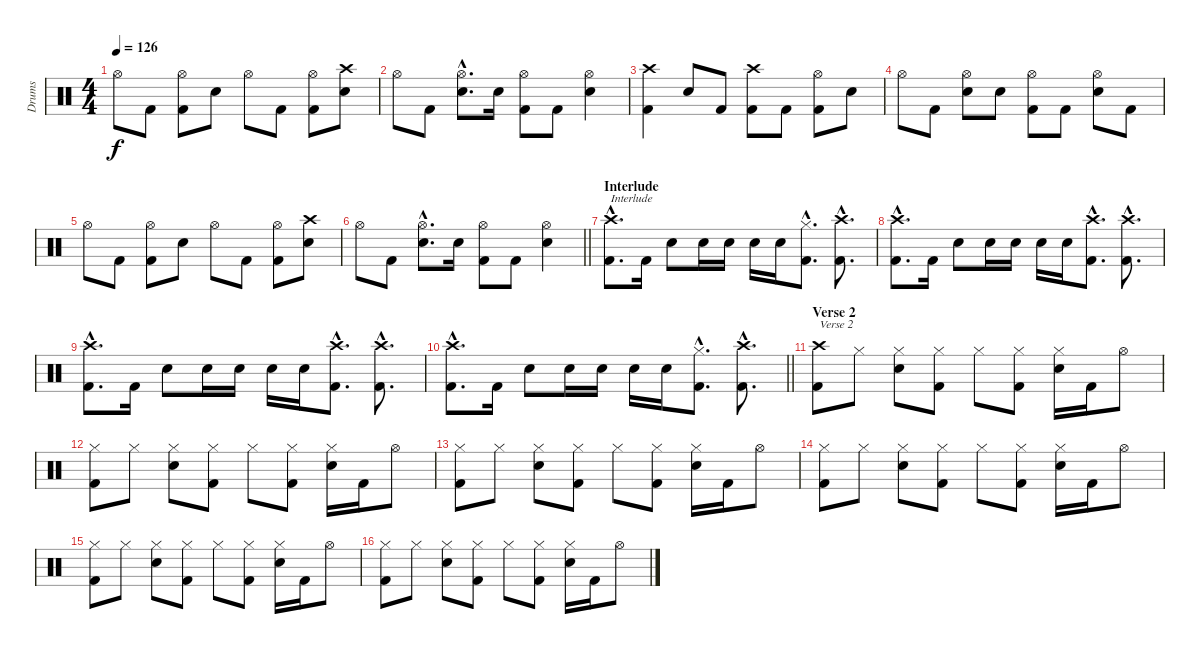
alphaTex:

\track ("Drums" "Drums") {instrument percussion}
\staff {score}
\articulation defaults
\ts (4 4)
\tempo 126
\clef neutral
\ks c "Hi-Hat (open)".8{dy f} "Kick (hit) 2".8
("Hi-Hat (open)" "Kick (hit) 2").8 "Electric Snare (hit)".8 "Hi-Hat (open)".8 "Kick (hit) 2".8 ("Hi-Hat (open)" "Kick (hit) 2").8 ("Crash high (hit)" "Electric Snare (hit)").8 |
"Hi-Hat (open)".8 "Kick (hit) 2".8 ("Hi-Hat (open)"{hac} "Electric Snare (hit)"{hac}).8{d} "Electric Snare (hit)".16 ("Hi-Hat (open)" "Kick (hit) 2").8 "Kick (hit) 2".8 ("Hi-Hat (open)" "Electric Snare (hit)").4 |
("Crash high (hit)" "Kick (hit) 2").4 "Electric Snare (hit)".8 "Kick (hit) 2".8 ("Crash high (hit)" "Kick (hit) 2").8 "Kick (hit) 2".8 ("Hi-Hat (open)" "Kick (hit) 2").8 "Electric Snare (hit)".8 |
"Hi-Hat (open)".8 "Kick (hit) 2".8 ("Hi-Hat (open)" "Electric Snare (hit)").8 "Electric Snare (hit)".8 ("Hi-Hat (open)" "Kick (hit) 2").8 "Kick (hit) 2".8 ("Hi-Hat (open)" "Electric Snare (hit)").8 "Kick (hit) 2".8 |
"Hi-Hat (open)".8 "Kick (hit) 2".8 ("Hi-Hat (open)" "Kick (hit) 2").8 "Electric Snare (hit)".8 "Hi-Hat (open)".8 "Kick (hit) 2".8 ("Hi-Hat (open)" "Kick (hit) 2").8 ("Crash high (hit)" "Electric Snare (hit)").8 |
\barLineRight lightlight "Hi-Hat (open)".8 "Kick (hit) 2".8
("Hi-Hat (open)"{hac} "Electric Snare (hit)"{hac}).8{d} "Electric Snare (hit)".16 ("Hi-Hat (open)" "Kick (hit) 2").8 "Kick (hit) 2".8 ("Hi-Hat (open)" "Electric Snare (hit)").4 |
\section ("" "Interlude")
("Crash high (hit)"{hac} "Kick (hit) 2"{hac}).8{d txt "Interlude"} "Kick (hit) 2".16 "Electric Snare (hit)".8 "Electric Snare (hit)".16 "Electric Snare (hit)".16 "Electric Snare (hit)".16 "Electric Snare (hit)".16 ("Hi-Hat (closed)"{hac} "Kick (hit) 2"{hac}).8{d} ("Crash high (hit)"{hac} "Kick (hit) 2"{hac}).8{d} |
("Crash high (hit)"{hac} "Kick (hit) 2"{hac}).8{d} "Kick (hit) 2".16 "Electric Snare (hit)".8 "Electric Snare (hit)".16 "Electric Snare (hit)".16 "Electric Snare (hit)".16 "Electric Snare (hit)".16 ("Crash high (hit)"{hac} "Kick (hit) 2"{hac}).8{d} ("Crash high (hit)"{hac} "Kick (hit) 2"{hac}).8{d} |
("Crash high (hit)"{hac} "Kick (hit) 2"{hac}).8{d} "Kick (hit) 2".16 "Electric Snare (hit)".8 "Electric Snare (hit)".16 "Electric Snare (hit)".16 "Electric Snare (hit)".16 "Electric Snare (hit)".16 ("Crash high (hit)"{hac} "Kick (hit) 2"{hac}).8{d} ("Crash high (hit)"{hac} "Kick (hit) 2"{hac}).8{d} |
\barLineRight lightlight
("Crash high (hit)"{hac} "Kick (hit) 2"{hac}).8{d} "Kick (hit) 2".16 "Electric Snare (hit)".8 "Electric Snare (hit)".16 "Electric Snare (hit)".16 "Electric Snare (hit)".16 "Electric Snare (hit)".16 ("Hi-Hat (closed)"{hac} "Kick (hit) 2"{hac}).8{d} ("Crash high (hit)"{hac} "Kick (hit) 2"{hac}).8{d} |
\section ("" "Verse 2")
("Crash high (hit)" "Kick (hit) 2").8{txt "Verse 2"} "Hi-Hat (closed)".8 ("Hi-Hat (closed)" "Electric Snare (hit)").8 ("Hi-Hat (closed)" "Kick (hit) 2").8 "Hi-Hat (closed)".8 ("Hi-Hat (closed)" "Kick (hit) 2").8 ("Hi-Hat (closed)" "Electric Snare (hit)").16 "Kick (hit) 2".16 "Hi-Hat (open)".8 |
("Hi-Hat (closed)" "Kick (hit) 2").8 "Hi-Hat (closed)".8 ("Hi-Hat (closed)" "Electric Snare (hit)").8 ("Hi-Hat (closed)" "Kick (hit) 2").8 "Hi-Hat (closed)".8 ("Hi-Hat (closed)" "Kick (hit) 2").8 ("Hi-Hat (closed)" "Electric Snare (hit)").16 "Kick (hit) 2".16 "Hi-Hat (open)".8 |
("Hi-Hat (closed)" "Kick (hit) 2").8 "Hi-Hat (closed)".8 ("Hi-Hat (closed)" "Electric Snare (hit)").8 ("Hi-Hat (closed)" "Kick (hit) 2").8 "Hi-Hat (closed)".8 ("Hi-Hat (closed)" "Kick (hit) 2").8 ("Hi-Hat (closed)" "Electric Snare (hit)").16 "Kick (hit) 2".16 "Hi-Hat (open)".8 |
("Hi-Hat (closed)" "Kick (hit) 2").8 "Hi-Hat (closed)".8 ("Hi-Hat (closed)" "Electric Snare (hit)").8 ("Hi-Hat (closed)" "Kick (hit) 2").8 "Hi-Hat (closed)".8 ("Hi-Hat (closed)" "Kick (hit) 2").8 ("Hi-Hat (closed)" "Electric Snare (hit)").16 "Kick (hit) 2".16 "Hi-Hat (open)".8 |
("Hi-Hat (closed)" "Kick (hit) 2").8 "Hi-Hat (closed)".8 ("Hi-Hat (closed)" "Electric Snare (hit)").8 ("Hi-Hat (closed)" "Kick (hit) 2").8 "Hi-Hat (closed)".8 ("Hi-Hat (closed)" "Kick (hit) 2").8 ("Hi-Hat (closed)" "Electric Snare (hit)").16 "Kick (hit) 2".16 "Hi-Hat (open)".8 |
("Hi-Hat (closed)" "Kick (hit) 2").8 "Hi-Hat (closed)".8 ("Hi-Hat (closed)" "Electric Snare (hit)").8 ("Hi-Hat (closed)" "Kick (hit) 2").8 "Hi-Hat (closed)".8 ("Hi-Hat (closed)" "Kick (hit) 2").8 ("Hi-Hat (closed)" "Electric Snare (hit)").16 "Kick (hit) 2".16 "Hi-Hat (open)".8
